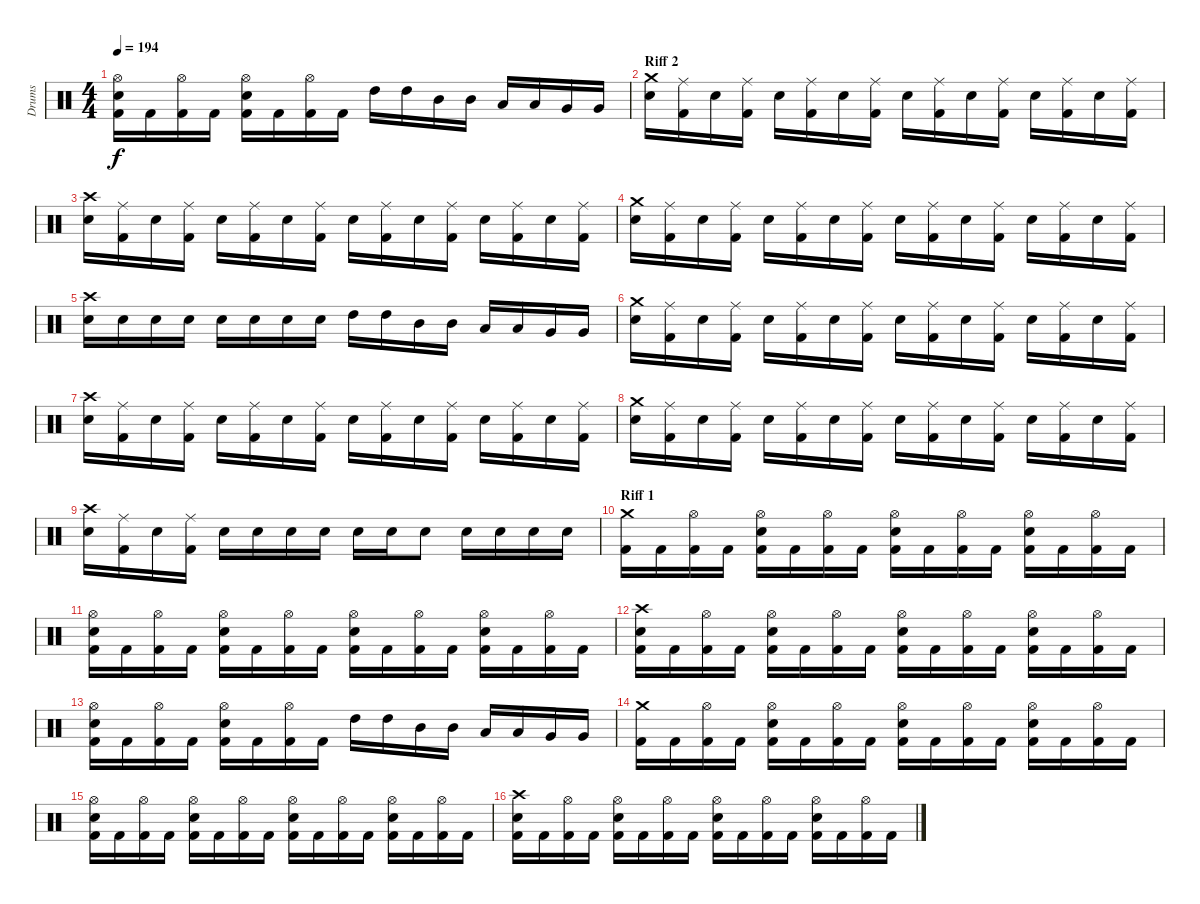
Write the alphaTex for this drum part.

\track ("Drums" "Drums") {instrument percussion}
\staff {score}
\articulation defaults
\ts (4 4)
\tempo 194
\clef neutral
\ks c
("Hi-Hat (open)" "Electric Snare (hit)" "Kick (hit) 2").16{dy f} "Kick (hit) 2".16 ("Hi-Hat (open)" "Kick (hit) 2").16 "Kick (hit) 2".16 ("Hi-Hat (open)" "Electric Snare (hit)" "Kick (hit) 2").16 "Kick (hit) 2".16 ("Hi-Hat (open)" "Kick (hit) 2").16 "Kick (hit) 2".16 "High Tom (hit)".16 "High Tom (hit)".16 "Mid Tom (hit)".16 "Mid Tom (hit)".16 "Low Tom (hit)".16 "Low Tom (hit)".16 "Very Low Tom (hit)".16 "Very Low Tom (hit)".16 |
\section ("" "Riff 2")
("Crash medium (hit)" "Electric Snare (hit)").16 ("Ride (middle)" "Kick (hit) 2").16 "Electric Snare (hit)".16 ("Ride (middle)" "Kick (hit) 2").16 "Electric Snare (hit)".16 ("Ride (middle)" "Kick (hit) 2").16 "Electric Snare (hit)".16 ("Ride (middle)" "Kick (hit) 2").16 "Electric Snare (hit)".16 ("Ride (middle)" "Kick (hit) 2").16 "Electric Snare (hit)".16 ("Ride (middle)" "Kick (hit) 2").16 "Electric Snare (hit)".16 ("Ride (middle)" "Kick (hit) 2").16 "Electric Snare (hit)".16 ("Ride (middle)" "Kick (hit) 2").16 |
("Crash high (hit)" "Electric Snare (hit)").16 ("Ride (middle)" "Kick (hit) 2").16 "Electric Snare (hit)".16 ("Ride (middle)" "Kick (hit) 2").16 "Electric Snare (hit)".16 ("Ride (middle)" "Kick (hit) 2").16 "Electric Snare (hit)".16 ("Ride (middle)" "Kick (hit) 2").16 "Electric Snare (hit)".16 ("Ride (middle)" "Kick (hit) 2").16 "Electric Snare (hit)".16 ("Ride (middle)" "Kick (hit) 2").16 "Electric Snare (hit)".16 ("Ride (middle)" "Kick (hit) 2").16 "Electric Snare (hit)".16 ("Ride (middle)" "Kick (hit) 2").16 |
("Crash medium (hit)" "Electric Snare (hit)").16 ("Ride (middle)" "Kick (hit) 2").16 "Electric Snare (hit)".16 ("Ride (middle)" "Kick (hit) 2").16 "Electric Snare (hit)".16 ("Ride (middle)" "Kick (hit) 2").16 "Electric Snare (hit)".16 ("Ride (middle)" "Kick (hit) 2").16 "Electric Snare (hit)".16 ("Ride (middle)" "Kick (hit) 2").16 "Electric Snare (hit)".16 ("Ride (middle)" "Kick (hit) 2").16 "Electric Snare (hit)".16 ("Ride (middle)" "Kick (hit) 2").16 "Electric Snare (hit)".16 ("Ride (middle)" "Kick (hit) 2").16 |
("Crash high (hit)" "Electric Snare (hit)").16 "Electric Snare (hit)".16 "Electric Snare (hit)".16 "Electric Snare (hit)".16 "Electric Snare (hit)".16 "Electric Snare (hit)".16 "Electric Snare (hit)".16 "Electric Snare (hit)".16 "High Tom (hit)".16 "High Tom (hit)".16 "Mid Tom (hit)".16 "Mid Tom (hit)".16 "Low Tom (hit)".16 "Low Tom (hit)".16 "Very Low Tom (hit)".16 "Very Low Tom (hit)".16 |
("Crash medium (hit)" "Electric Snare (hit)").16 ("Ride (middle)" "Kick (hit) 2").16 "Electric Snare (hit)".16 ("Ride (middle)" "Kick (hit) 2").16 "Electric Snare (hit)".16 ("Ride (middle)" "Kick (hit) 2").16 "Electric Snare (hit)".16 ("Ride (middle)" "Kick (hit) 2").16 "Electric Snare (hit)".16 ("Ride (middle)" "Kick (hit) 2").16 "Electric Snare (hit)".16 ("Ride (middle)" "Kick (hit) 2").16 "Electric Snare (hit)".16 ("Ride (middle)" "Kick (hit) 2").16 "Electric Snare (hit)".16 ("Ride (middle)" "Kick (hit) 2").16 |
("Crash high (hit)" "Electric Snare (hit)").16 ("Ride (middle)" "Kick (hit) 2").16 "Electric Snare (hit)".16 ("Ride (middle)" "Kick (hit) 2").16 "Electric Snare (hit)".16 ("Ride (middle)" "Kick (hit) 2").16 "Electric Snare (hit)".16 ("Ride (middle)" "Kick (hit) 2").16 "Electric Snare (hit)".16 ("Ride (middle)" "Kick (hit) 2").16 "Electric Snare (hit)".16 ("Ride (middle)" "Kick (hit) 2").16 "Electric Snare (hit)".16 ("Ride (middle)" "Kick (hit) 2").16 "Electric Snare (hit)".16 ("Ride (middle)" "Kick (hit) 2").16 |
("Crash medium (hit)" "Electric Snare (hit)").16 ("Ride (middle)" "Kick (hit) 2").16 "Electric Snare (hit)".16 ("Ride (middle)" "Kick (hit) 2").16 "Electric Snare (hit)".16 ("Ride (middle)" "Kick (hit) 2").16 "Electric Snare (hit)".16 ("Ride (middle)" "Kick (hit) 2").16 "Electric Snare (hit)".16 ("Ride (middle)" "Kick (hit) 2").16 "Electric Snare (hit)".16 ("Ride (middle)" "Kick (hit) 2").16 "Electric Snare (hit)".16 ("Ride (middle)" "Kick (hit) 2").16 "Electric Snare (hit)".16 ("Ride (middle)" "Kick (hit) 2").16 |
("Crash high (hit)" "Electric Snare (hit)").16 ("Ride (middle)" "Kick (hit) 2").16 "Electric Snare (hit)".16 ("Ride (middle)" "Kick (hit) 2").16 "Electric Snare (hit)".16 "Electric Snare (hit)".16 "Electric Snare (hit)".16 "Electric Snare (hit)".16 "Electric Snare (hit)".16 "Electric Snare (hit)".16 "Electric Snare (hit)".8 "Electric Snare (hit)".16 "Electric Snare (hit)".16 "Electric Snare (hit)".16 "Electric Snare (hit)".16 |
\section ("" "Riff 1")
("Crash medium (hit)" "Kick (hit) 2").16 "Kick (hit) 2".16 ("Hi-Hat (open)" "Kick (hit) 2").16 "Kick (hit) 2".16 ("Hi-Hat (open)" "Electric Snare (hit)" "Kick (hit) 2").16 "Kick (hit) 2".16 ("Hi-Hat (open)" "Kick (hit) 2").16 "Kick (hit) 2".16 ("Hi-Hat (open)" "Electric Snare (hit)" "Kick (hit) 2").16 "Kick (hit) 2".16 ("Hi-Hat (open)" "Kick (hit) 2").16 "Kick (hit) 2".16 ("Hi-Hat (open)" "Electric Snare (hit)" "Kick (hit) 2").16 "Kick (hit) 2".16 ("Hi-Hat (open)" "Kick (hit) 2").16 "Kick (hit) 2".16 |
("Hi-Hat (open)" "Electric Snare (hit)" "Kick (hit) 2").16 "Kick (hit) 2".16 ("Hi-Hat (open)" "Kick (hit) 2").16 "Kick (hit) 2".16 ("Hi-Hat (open)" "Electric Snare (hit)" "Kick (hit) 2").16 "Kick (hit) 2".16 ("Hi-Hat (open)" "Kick (hit) 2").16 "Kick (hit) 2".16 ("Hi-Hat (open)" "Electric Snare (hit)" "Kick (hit) 2").16 "Kick (hit) 2".16 ("Hi-Hat (open)" "Kick (hit) 2").16 "Kick (hit) 2".16 ("Hi-Hat (open)" "Electric Snare (hit)" "Kick (hit) 2").16 "Kick (hit) 2".16 ("Hi-Hat (open)" "Kick (hit) 2").16 "Kick (hit) 2".16 |
("Crash high (hit)" "Electric Snare (hit)" "Kick (hit) 2").16 "Kick (hit) 2".16 ("Hi-Hat (open)" "Kick (hit) 2").16 "Kick (hit) 2".16 ("Hi-Hat (open)" "Electric Snare (hit)" "Kick (hit) 2").16 "Kick (hit) 2".16 ("Hi-Hat (open)" "Kick (hit) 2").16 "Kick (hit) 2".16 ("Hi-Hat (open)" "Electric Snare (hit)" "Kick (hit) 2").16 "Kick (hit) 2".16 ("Hi-Hat (open)" "Kick (hit) 2").16 "Kick (hit) 2".16 ("Hi-Hat (open)" "Electric Snare (hit)" "Kick (hit) 2").16 "Kick (hit) 2".16 ("Hi-Hat (open)" "Kick (hit) 2").16 "Kick (hit) 2".16 |
("Hi-Hat (open)" "Electric Snare (hit)" "Kick (hit) 2").16 "Kick (hit) 2".16 ("Hi-Hat (open)" "Kick (hit) 2").16 "Kick (hit) 2".16 ("Hi-Hat (open)" "Electric Snare (hit)" "Kick (hit) 2").16 "Kick (hit) 2".16 ("Hi-Hat (open)" "Kick (hit) 2").16 "Kick (hit) 2".16 "High Tom (hit)".16 "High Tom (hit)".16 "Mid Tom (hit)".16 "Mid Tom (hit)".16 "Low Tom (hit)".16 "Low Tom (hit)".16 "Very Low Tom (hit)".16 "Very Low Tom (hit)".16 |
("Crash medium (hit)" "Kick (hit) 2").16 "Kick (hit) 2".16 ("Hi-Hat (open)" "Kick (hit) 2").16 "Kick (hit) 2".16 ("Hi-Hat (open)" "Electric Snare (hit)" "Kick (hit) 2").16 "Kick (hit) 2".16 ("Hi-Hat (open)" "Kick (hit) 2").16 "Kick (hit) 2".16 ("Hi-Hat (open)" "Electric Snare (hit)" "Kick (hit) 2").16 "Kick (hit) 2".16 ("Hi-Hat (open)" "Kick (hit) 2").16 "Kick (hit) 2".16 ("Hi-Hat (open)" "Electric Snare (hit)" "Kick (hit) 2").16 "Kick (hit) 2".16 ("Hi-Hat (open)" "Kick (hit) 2").16 "Kick (hit) 2".16 |
("Hi-Hat (open)" "Electric Snare (hit)" "Kick (hit) 2").16 "Kick (hit) 2".16 ("Hi-Hat (open)" "Kick (hit) 2").16 "Kick (hit) 2".16 ("Hi-Hat (open)" "Electric Snare (hit)" "Kick (hit) 2").16 "Kick (hit) 2".16 ("Hi-Hat (open)" "Kick (hit) 2").16 "Kick (hit) 2".16 ("Hi-Hat (open)" "Electric Snare (hit)" "Kick (hit) 2").16 "Kick (hit) 2".16 ("Hi-Hat (open)" "Kick (hit) 2").16 "Kick (hit) 2".16 ("Hi-Hat (open)" "Electric Snare (hit)" "Kick (hit) 2").16 "Kick (hit) 2".16 ("Hi-Hat (open)" "Kick (hit) 2").16 "Kick (hit) 2".16 |
("Crash high (hit)" "Electric Snare (hit)" "Kick (hit) 2").16 "Kick (hit) 2".16 ("Hi-Hat (open)" "Kick (hit) 2").16 "Kick (hit) 2".16 ("Hi-Hat (open)" "Electric Snare (hit)" "Kick (hit) 2").16 "Kick (hit) 2".16 ("Hi-Hat (open)" "Kick (hit) 2").16 "Kick (hit) 2".16 ("Hi-Hat (open)" "Electric Snare (hit)" "Kick (hit) 2").16 "Kick (hit) 2".16 ("Hi-Hat (open)" "Kick (hit) 2").16 "Kick (hit) 2".16 ("Hi-Hat (open)" "Electric Snare (hit)" "Kick (hit) 2").16 "Kick (hit) 2".16 ("Hi-Hat (open)" "Kick (hit) 2").16 "Kick (hit) 2".16
